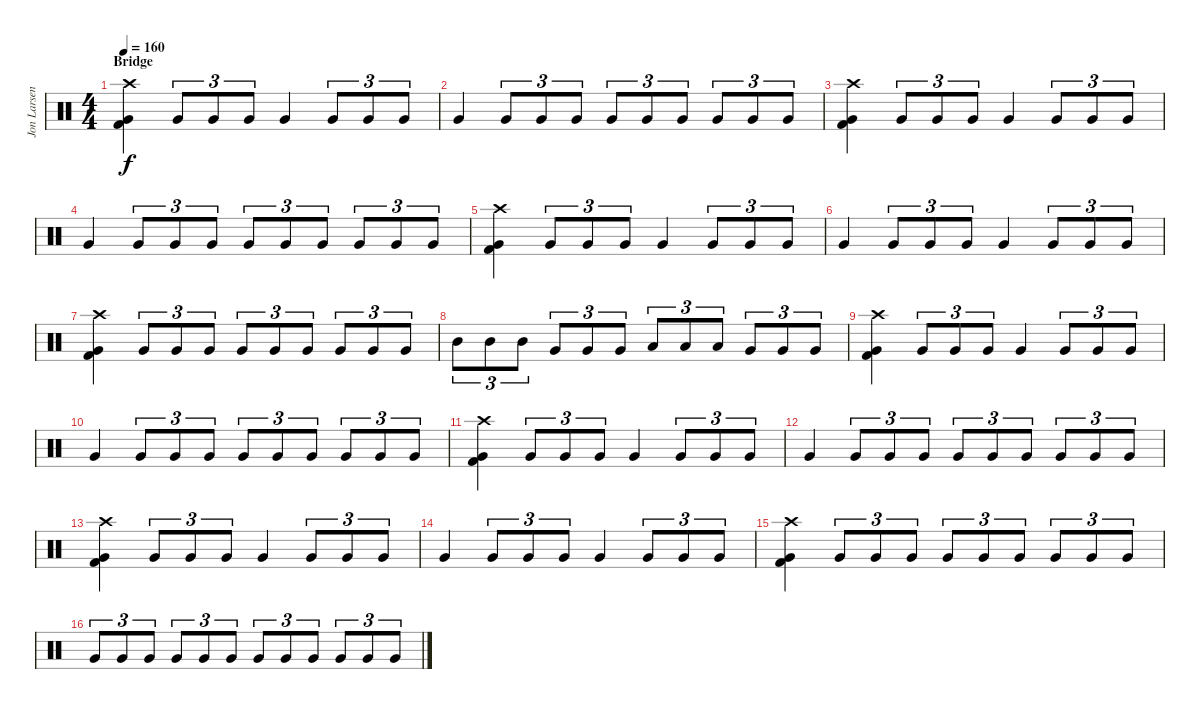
\track ("Jon Larsen" "Jon Larsen") {instrument percussion}
\staff {score}
\articulation defaults
\ts (4 4)
\section ("" "Bridge")
\tempo 160
\clef neutral
\ks c
("Crash high (hit)" "Very Low Tom (hit)" "Kick (hit) 2").4{dy f} "Very Low Tom (hit)".8{tu (3 2)} "Very Low Tom (hit)".8{tu (3 2)} "Very Low Tom (hit)".8{tu (3 2)} "Very Low Tom (hit)".4 "Very Low Tom (hit)".8{tu (3 2)} "Very Low Tom (hit)".8{tu (3 2)} "Very Low Tom (hit)".8{tu (3 2)} |
"Very Low Tom (hit)".4 "Very Low Tom (hit)".8{tu (3 2)} "Very Low Tom (hit)".8{tu (3 2)} "Very Low Tom (hit)".8{tu (3 2)} "Very Low Tom (hit)".8{tu (3 2)} "Very Low Tom (hit)".8{tu (3 2)} "Very Low Tom (hit)".8{tu (3 2)} "Very Low Tom (hit)".8{tu (3 2)} "Very Low Tom (hit)".8{tu (3 2)} "Very Low Tom (hit)".8{tu (3 2)} |
("Crash high (hit)" "Very Low Tom (hit)" "Kick (hit) 2").4 "Very Low Tom (hit)".8{tu (3 2)} "Very Low Tom (hit)".8{tu (3 2)} "Very Low Tom (hit)".8{tu (3 2)} "Very Low Tom (hit)".4 "Very Low Tom (hit)".8{tu (3 2)} "Very Low Tom (hit)".8{tu (3 2)} "Very Low Tom (hit)".8{tu (3 2)} |
"Very Low Tom (hit)".4 "Very Low Tom (hit)".8{tu (3 2)} "Very Low Tom (hit)".8{tu (3 2)} "Very Low Tom (hit)".8{tu (3 2)} "Very Low Tom (hit)".8{tu (3 2)} "Very Low Tom (hit)".8{tu (3 2)} "Very Low Tom (hit)".8{tu (3 2)} "Very Low Tom (hit)".8{tu (3 2)} "Very Low Tom (hit)".8{tu (3 2)} "Very Low Tom (hit)".8{tu (3 2)} |
("Crash high (hit)" "Very Low Tom (hit)" "Kick (hit) 2").4 "Very Low Tom (hit)".8{tu (3 2)} "Very Low Tom (hit)".8{tu (3 2)} "Very Low Tom (hit)".8{tu (3 2)} "Very Low Tom (hit)".4 "Very Low Tom (hit)".8{tu (3 2)} "Very Low Tom (hit)".8{tu (3 2)} "Very Low Tom (hit)".8{tu (3 2)} |
"Very Low Tom (hit)".4 "Very Low Tom (hit)".8{tu (3 2)} "Very Low Tom (hit)".8{tu (3 2)} "Very Low Tom (hit)".8{tu (3 2)} "Very Low Tom (hit)".4 "Very Low Tom (hit)".8{tu (3 2)} "Very Low Tom (hit)".8{tu (3 2)} "Very Low Tom (hit)".8{tu (3 2)} |
("Crash high (hit)" "Very Low Tom (hit)" "Kick (hit) 2").4 "Very Low Tom (hit)".8{tu (3 2)} "Very Low Tom (hit)".8{tu (3 2)} "Very Low Tom (hit)".8{tu (3 2)} "Very Low Tom (hit)".8{tu (3 2)} "Very Low Tom (hit)".8{tu (3 2)} "Very Low Tom (hit)".8{tu (3 2)} "Very Low Tom (hit)".8{tu (3 2)} "Very Low Tom (hit)".8{tu (3 2)} "Very Low Tom (hit)".8{tu (3 2)} |
"Mid Tom (hit)".8{tu (3 2)} "Mid Tom (hit)".8{tu (3 2)} "Mid Tom (hit)".8{tu (3 2)} "Very Low Tom (hit)".8{tu (3 2)} "Very Low Tom (hit)".8{tu (3 2)} "Very Low Tom (hit)".8{tu (3 2)} "Low Tom (hit)".8{tu (3 2)} "Low Tom (hit)".8{tu (3 2)} "Low Tom (hit)".8{tu (3 2)} "Very Low Tom (hit)".8{tu (3 2)} "Very Low Tom (hit)".8{tu (3 2)} "Very Low Tom (hit)".8{tu (3 2)} |
("Crash high (hit)" "Very Low Tom (hit)" "Kick (hit) 2").4 "Very Low Tom (hit)".8{tu (3 2)} "Very Low Tom (hit)".8{tu (3 2)} "Very Low Tom (hit)".8{tu (3 2)} "Very Low Tom (hit)".4 "Very Low Tom (hit)".8{tu (3 2)} "Very Low Tom (hit)".8{tu (3 2)} "Very Low Tom (hit)".8{tu (3 2)} |
"Very Low Tom (hit)".4 "Very Low Tom (hit)".8{tu (3 2)} "Very Low Tom (hit)".8{tu (3 2)} "Very Low Tom (hit)".8{tu (3 2)} "Very Low Tom (hit)".8{tu (3 2)} "Very Low Tom (hit)".8{tu (3 2)} "Very Low Tom (hit)".8{tu (3 2)} "Very Low Tom (hit)".8{tu (3 2)} "Very Low Tom (hit)".8{tu (3 2)} "Very Low Tom (hit)".8{tu (3 2)} |
("Crash high (hit)" "Very Low Tom (hit)" "Kick (hit) 2").4 "Very Low Tom (hit)".8{tu (3 2)} "Very Low Tom (hit)".8{tu (3 2)} "Very Low Tom (hit)".8{tu (3 2)} "Very Low Tom (hit)".4 "Very Low Tom (hit)".8{tu (3 2)} "Very Low Tom (hit)".8{tu (3 2)} "Very Low Tom (hit)".8{tu (3 2)} |
"Very Low Tom (hit)".4 "Very Low Tom (hit)".8{tu (3 2)} "Very Low Tom (hit)".8{tu (3 2)} "Very Low Tom (hit)".8{tu (3 2)} "Very Low Tom (hit)".8{tu (3 2)} "Very Low Tom (hit)".8{tu (3 2)} "Very Low Tom (hit)".8{tu (3 2)} "Very Low Tom (hit)".8{tu (3 2)} "Very Low Tom (hit)".8{tu (3 2)} "Very Low Tom (hit)".8{tu (3 2)} |
("Crash high (hit)" "Very Low Tom (hit)" "Kick (hit) 2").4 "Very Low Tom (hit)".8{tu (3 2)} "Very Low Tom (hit)".8{tu (3 2)} "Very Low Tom (hit)".8{tu (3 2)} "Very Low Tom (hit)".4 "Very Low Tom (hit)".8{tu (3 2)} "Very Low Tom (hit)".8{tu (3 2)} "Very Low Tom (hit)".8{tu (3 2)} |
"Very Low Tom (hit)".4 "Very Low Tom (hit)".8{tu (3 2)} "Very Low Tom (hit)".8{tu (3 2)} "Very Low Tom (hit)".8{tu (3 2)} "Very Low Tom (hit)".4 "Very Low Tom (hit)".8{tu (3 2)} "Very Low Tom (hit)".8{tu (3 2)} "Very Low Tom (hit)".8{tu (3 2)} |
("Crash high (hit)" "Very Low Tom (hit)" "Kick (hit) 2").4 "Very Low Tom (hit)".8{tu (3 2)} "Very Low Tom (hit)".8{tu (3 2)} "Very Low Tom (hit)".8{tu (3 2)} "Very Low Tom (hit)".8{tu (3 2)} "Very Low Tom (hit)".8{tu (3 2)} "Very Low Tom (hit)".8{tu (3 2)} "Very Low Tom (hit)".8{tu (3 2)} "Very Low Tom (hit)".8{tu (3 2)} "Very Low Tom (hit)".8{tu (3 2)} |
"Very Low Tom (hit)".8{tu (3 2)} "Very Low Tom (hit)".8{tu (3 2)} "Very Low Tom (hit)".8{tu (3 2)} "Very Low Tom (hit)".8{tu (3 2)} "Very Low Tom (hit)".8{tu (3 2)} "Very Low Tom (hit)".8{tu (3 2)} "Very Low Tom (hit)".8{tu (3 2)} "Very Low Tom (hit)".8{tu (3 2)} "Very Low Tom (hit)".8{tu (3 2)} "Very Low Tom (hit)".8{tu (3 2)} "Very Low Tom (hit)".8{tu (3 2)} "Very Low Tom (hit)".8{tu (3 2)}
